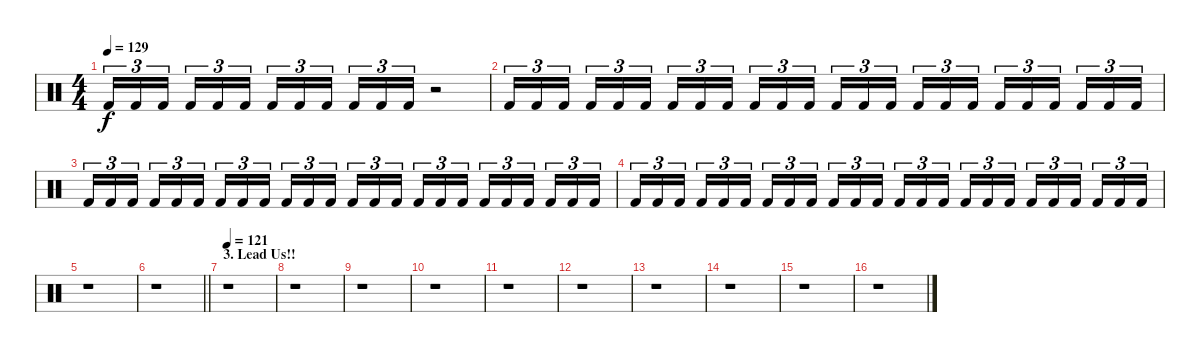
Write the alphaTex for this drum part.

\track "" {instrument percussion}
\staff {score}
\articulation defaults
\ts (4 4)
\tempo 129
\clef neutral
\ks c "Kick (hit) 2".16{tu (3 2) dy f} "Kick (hit) 2".16{tu (3 2)} "Kick (hit) 2".16{tu (3 2) beam splitsecondary} "Kick (hit) 2".16{tu (3 2)} "Kick (hit) 2".16{tu (3 2)} "Kick (hit) 2".16{tu (3 2)} "Kick (hit) 2".16{tu (3 2)} "Kick (hit) 2".16{tu (3 2)} "Kick (hit) 2".16{tu (3 2) beam splitsecondary} "Kick (hit) 2".16{tu (3 2)} "Kick (hit) 2".16{tu (3 2)} "Kick (hit) 2".16{tu (3 2)}
r.2 |
"Kick (hit) 2".16{tu (3 2)} "Kick (hit) 2".16{tu (3 2)} "Kick (hit) 2".16{tu (3 2) beam splitsecondary} "Kick (hit) 2".16{tu (3 2)} "Kick (hit) 2".16{tu (3 2)} "Kick (hit) 2".16{tu (3 2)} "Kick (hit) 2".16{tu (3 2)} "Kick (hit) 2".16{tu (3 2)} "Kick (hit) 2".16{tu (3 2) beam splitsecondary} "Kick (hit) 2".16{tu (3 2)} "Kick (hit) 2".16{tu (3 2)} "Kick (hit) 2".16{tu (3 2)} "Kick (hit) 2".16{tu (3 2)} "Kick (hit) 2".16{tu (3 2)} "Kick (hit) 2".16{tu (3 2) beam splitsecondary} "Kick (hit) 2".16{tu (3 2)} "Kick (hit) 2".16{tu (3 2)} "Kick (hit) 2".16{tu (3 2)} "Kick (hit) 2".16{tu (3 2)} "Kick (hit) 2".16{tu (3 2)} "Kick (hit) 2".16{tu (3 2) beam splitsecondary} "Kick (hit) 2".16{tu (3 2)} "Kick (hit) 2".16{tu (3 2)} "Kick (hit) 2".16{tu (3 2)} |
"Kick (hit) 2".16{tu (3 2)} "Kick (hit) 2".16{tu (3 2)} "Kick (hit) 2".16{tu (3 2) beam splitsecondary} "Kick (hit) 2".16{tu (3 2)} "Kick (hit) 2".16{tu (3 2)} "Kick (hit) 2".16{tu (3 2)} "Kick (hit) 2".16{tu (3 2)} "Kick (hit) 2".16{tu (3 2)} "Kick (hit) 2".16{tu (3 2) beam splitsecondary} "Kick (hit) 2".16{tu (3 2)} "Kick (hit) 2".16{tu (3 2)} "Kick (hit) 2".16{tu (3 2)} "Kick (hit) 2".16{tu (3 2)} "Kick (hit) 2".16{tu (3 2)} "Kick (hit) 2".16{tu (3 2) beam splitsecondary} "Kick (hit) 2".16{tu (3 2)} "Kick (hit) 2".16{tu (3 2)} "Kick (hit) 2".16{tu (3 2)} "Kick (hit) 2".16{tu (3 2)} "Kick (hit) 2".16{tu (3 2)} "Kick (hit) 2".16{tu (3 2) beam splitsecondary} "Kick (hit) 2".16{tu (3 2)} "Kick (hit) 2".16{tu (3 2)} "Kick (hit) 2".16{tu (3 2)} |
"Kick (hit) 2".16{tu (3 2)} "Kick (hit) 2".16{tu (3 2)} "Kick (hit) 2".16{tu (3 2) beam splitsecondary} "Kick (hit) 2".16{tu (3 2)} "Kick (hit) 2".16{tu (3 2)} "Kick (hit) 2".16{tu (3 2)} "Kick (hit) 2".16{tu (3 2)} "Kick (hit) 2".16{tu (3 2)} "Kick (hit) 2".16{tu (3 2) beam splitsecondary} "Kick (hit) 2".16{tu (3 2)} "Kick (hit) 2".16{tu (3 2)} "Kick (hit) 2".16{tu (3 2)} "Kick (hit) 2".16{tu (3 2)} "Kick (hit) 2".16{tu (3 2)} "Kick (hit) 2".16{tu (3 2) beam splitsecondary} "Kick (hit) 2".16{tu (3 2)} "Kick (hit) 2".16{tu (3 2)} "Kick (hit) 2".16{tu (3 2)} "Kick (hit) 2".16{tu (3 2)} "Kick (hit) 2".16{tu (3 2)} "Kick (hit) 2".16{tu (3 2) beam splitsecondary} "Kick (hit) 2".16{tu (3 2)} "Kick (hit) 2".16{tu (3 2)} "Kick (hit) 2".16{tu (3 2)} |
r.1 |
\barLineRight lightlight
r.1 |
\section ("" "3. Lead Us!!")
\tempo 121
r.1 |
r.1 |
r.1 |
r.1 |
r.1 |
r.1 |
r.1 |
r.1 |
r.1 |
r.1
